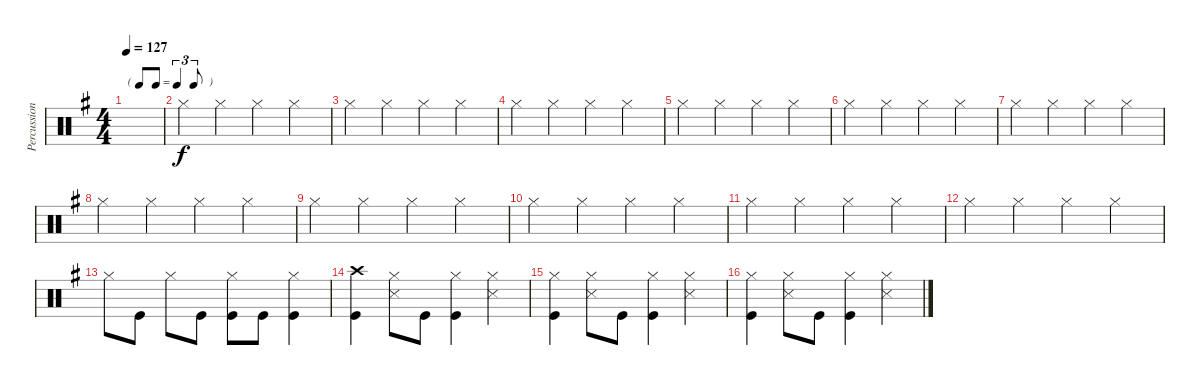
\track ("Percussion" "Percussion") {instrument percussion}
\staff {score}
\articulation defaults
\ts (4 4)
\tf triplet8th
\tempo 127
\clef neutral
\ks g
|
"Hi-Hat (closed)".4 "Hi-Hat (closed)".4 "Hi-Hat (closed)".4 "Hi-Hat (closed)".4 |
"Hi-Hat (closed)".4 "Hi-Hat (closed)".4 "Hi-Hat (closed)".4 "Hi-Hat (closed)".4 |
"Hi-Hat (closed)".4 "Hi-Hat (closed)".4 "Hi-Hat (closed)".4 "Hi-Hat (closed)".4 |
"Hi-Hat (closed)".4 "Hi-Hat (closed)".4 "Hi-Hat (closed)".4 "Hi-Hat (closed)".4 |
"Hi-Hat (closed)".4 "Hi-Hat (closed)".4 "Hi-Hat (closed)".4 "Hi-Hat (closed)".4 |
"Hi-Hat (closed)".4 "Hi-Hat (closed)".4 "Hi-Hat (closed)".4 "Hi-Hat (closed)".4 |
"Hi-Hat (closed)".4 "Hi-Hat (closed)".4 "Hi-Hat (closed)".4 "Hi-Hat (closed)".4 |
"Hi-Hat (closed)".4 "Hi-Hat (closed)".4 "Hi-Hat (closed)".4 "Hi-Hat (closed)".4 |
"Hi-Hat (closed)".4 "Hi-Hat (closed)".4 "Hi-Hat (closed)".4 "Hi-Hat (closed)".4 |
"Hi-Hat (closed)".4 "Hi-Hat (closed)".4 "Hi-Hat (closed)".4 "Hi-Hat (closed)".4 |
"Hi-Hat (closed)".4 "Hi-Hat (closed)".4 "Hi-Hat (closed)".4 "Hi-Hat (closed)".4 |
"Hi-Hat (closed)".8 "Kick (hit)".8 "Hi-Hat (closed)".8 "Kick (hit)".8 ("Hi-Hat (closed)" "Kick (hit)").8 "Kick (hit)".8 ("Hi-Hat (closed)" "Kick (hit)").4 |
("Crash high (hit)" "Kick (hit)").4 ("Hi-Hat (closed)" "Snare (side stick) 3").8 "Kick (hit)".8 ("Hi-Hat (closed)" "Kick (hit)").4 ("Hi-Hat (closed)" "Snare (side stick) 3").4 |
("Hi-Hat (closed)" "Kick (hit)").4 ("Hi-Hat (closed)" "Snare (side stick) 3").8 "Kick (hit)".8 ("Hi-Hat (closed)" "Kick (hit)").4 ("Hi-Hat (closed)" "Snare (side stick) 3").4 |
("Hi-Hat (closed)" "Kick (hit)").4 ("Hi-Hat (closed)" "Snare (side stick) 3").8 "Kick (hit)".8 ("Hi-Hat (closed)" "Kick (hit)").4 ("Hi-Hat (closed)" "Snare (side stick) 3").4
